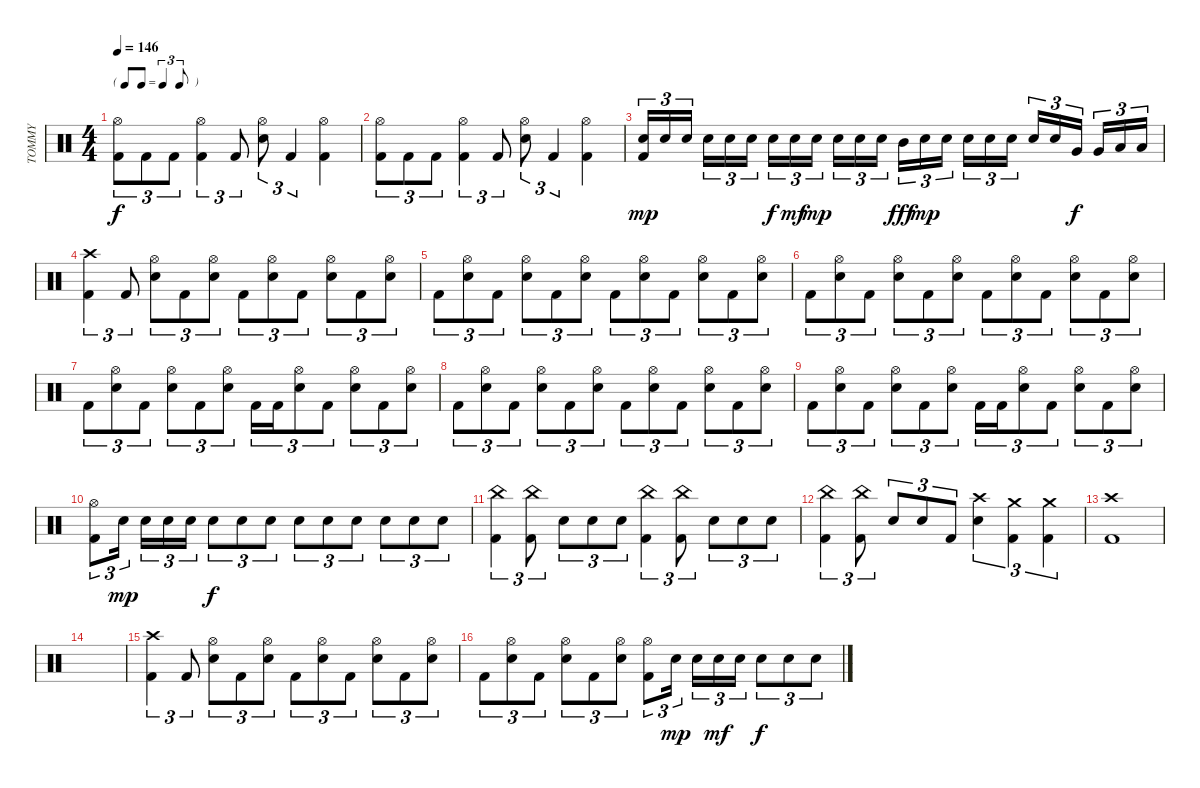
\track ("TOMMY" "TOMMY") {instrument percussion}
\staff {score}
\articulation defaults
\ts (4 4)
\tf triplet8th
\tempo 146
\clef neutral
\ks c
("Kick (hit) 2" "Hi-Hat (open)").8{tu (3 2) dy f} "Kick (hit) 2".8{tu (3 2)} "Kick (hit) 2".8{tu (3 2)} ("Kick (hit) 2" "Hi-Hat (open)").4{tu (3 2)} "Kick (hit) 2".8{tu (3 2)} ("Snare (hit) 2" "Hi-Hat (open)").8{tu (3 2)} "Kick (hit) 2".4{tu (3 2)} ("Kick (hit) 2" "Hi-Hat (open)").4 |
("Kick (hit) 2" "Hi-Hat (open)").8{tu (3 2)} "Kick (hit) 2".8{tu (3 2)} "Kick (hit) 2".8{tu (3 2)} ("Kick (hit) 2" "Hi-Hat (open)").4{tu (3 2)} "Kick (hit) 2".8{tu (3 2)} ("Snare (hit) 2" "Hi-Hat (open)").8{tu (3 2)} "Kick (hit) 2".4{tu (3 2)} ("Kick (hit) 2" "Hi-Hat (open)").4 |
("Snare (hit) 2" "Kick (hit) 2").16{tu (3 2) dy mp} "Snare (hit) 2".16{tu (3 2)} "Snare (hit) 2".16{tu (3 2)} "Snare (hit) 2".16{tu (3 2)} "Snare (hit) 2".16{tu (3 2)} "Snare (hit) 2".16{tu (3 2)} "Snare (hit) 2".16{tu (3 2) dy f} "Snare (hit) 2".16{tu (3 2) dy mf} "Snare (hit) 2".16{tu (3 2) dy mp} "Snare (hit) 2".16{tu (3 2)} "Snare (hit) 2".16{tu (3 2)} "Snare (hit) 2".16{tu (3 2)} "Mid Tom (hit)".16{tu (3 2) dy fff} "Snare (hit) 2".16{tu (3 2) dy mp} "Snare (hit) 2".16{tu (3 2)} "Snare (hit) 2".16{tu (3 2)} "Snare (hit) 2".16{tu (3 2)} "Snare (hit) 2".16{tu (3 2)} "Snare (hit) 2".16{tu (3 2)} "Snare (hit) 2".16{tu (3 2)} "Very Low Tom (hit)".16{tu (3 2) dy f} "Very Low Tom (hit)".16{tu (3 2)} "Low Floor Tom (hit)".16{tu (3 2)} "Low Floor Tom (hit)".16{tu (3 2)} |
("Kick (hit) 2" "Crash high (hit)").4{tu (3 2)} "Kick (hit) 2".8{tu (3 2)} ("Snare (hit) 2" "Hi-Hat (open)").8{tu (3 2)} "Kick (hit) 2".8{tu (3 2)} ("Snare (hit) 2" "Hi-Hat (open)").8{tu (3 2)} "Kick (hit) 2".8{tu (3 2)} ("Snare (hit) 2" "Hi-Hat (open)").8{tu (3 2)} "Kick (hit) 2".8{tu (3 2)} ("Snare (hit) 2" "Hi-Hat (open)").8{tu (3 2)} "Kick (hit) 2".8{tu (3 2)} ("Snare (hit) 2" "Hi-Hat (open)").8{tu (3 2)} |
"Kick (hit) 2".8{tu (3 2)} ("Snare (hit) 2" "Hi-Hat (open)").8{tu (3 2)} "Kick (hit) 2".8{tu (3 2)} ("Snare (hit) 2" "Hi-Hat (open)").8{tu (3 2)} "Kick (hit) 2".8{tu (3 2)} ("Snare (hit) 2" "Hi-Hat (open)").8{tu (3 2)} "Kick (hit) 2".8{tu (3 2)} ("Snare (hit) 2" "Hi-Hat (open)").8{tu (3 2)} "Kick (hit) 2".8{tu (3 2)} ("Snare (hit) 2" "Hi-Hat (open)").8{tu (3 2)} "Kick (hit) 2".8{tu (3 2)} ("Snare (hit) 2" "Hi-Hat (open)").8{tu (3 2)} |
"Kick (hit) 2".8{tu (3 2)} ("Snare (hit) 2" "Hi-Hat (open)").8{tu (3 2)} "Kick (hit) 2".8{tu (3 2)} ("Snare (hit) 2" "Hi-Hat (open)").8{tu (3 2)} "Kick (hit) 2".8{tu (3 2)} ("Snare (hit) 2" "Hi-Hat (open)").8{tu (3 2)} "Kick (hit) 2".8{tu (3 2)} ("Snare (hit) 2" "Hi-Hat (open)").8{tu (3 2)} "Kick (hit) 2".8{tu (3 2)} ("Snare (hit) 2" "Hi-Hat (open)").8{tu (3 2)} "Kick (hit) 2".8{tu (3 2)} ("Snare (hit) 2" "Hi-Hat (open)").8{tu (3 2)} |
"Kick (hit) 2".8{tu (3 2)} ("Snare (hit) 2" "Hi-Hat (open)").8{tu (3 2)} "Kick (hit) 2".8{tu (3 2)} ("Snare (hit) 2" "Hi-Hat (open)").8{tu (3 2)} "Kick (hit) 2".8{tu (3 2)} ("Snare (hit) 2" "Hi-Hat (open)").8{tu (3 2)} "Kick (hit) 2".16{tu (3 2)} "Kick (hit) 2".16{tu (3 2)} ("Snare (hit) 2" "Hi-Hat (open)").8{tu (3 2)} "Kick (hit) 2".8{tu (3 2)} ("Snare (hit) 2" "Hi-Hat (open)").8{tu (3 2)} "Kick (hit) 2".8{tu (3 2)} ("Snare (hit) 2" "Hi-Hat (open)").8{tu (3 2)} |
"Kick (hit) 2".8{tu (3 2)} ("Snare (hit) 2" "Hi-Hat (open)").8{tu (3 2)} "Kick (hit) 2".8{tu (3 2)} ("Snare (hit) 2" "Hi-Hat (open)").8{tu (3 2)} "Kick (hit) 2".8{tu (3 2)} ("Snare (hit) 2" "Hi-Hat (open)").8{tu (3 2)} "Kick (hit) 2".8{tu (3 2)} ("Snare (hit) 2" "Hi-Hat (open)").8{tu (3 2)} "Kick (hit) 2".8{tu (3 2)} ("Snare (hit) 2" "Hi-Hat (open)").8{tu (3 2)} "Kick (hit) 2".8{tu (3 2)} ("Snare (hit) 2" "Hi-Hat (open)").8{tu (3 2)} |
"Kick (hit) 2".8{tu (3 2)} ("Snare (hit) 2" "Hi-Hat (open)").8{tu (3 2)} "Kick (hit) 2".8{tu (3 2)} ("Snare (hit) 2" "Hi-Hat (open)").8{tu (3 2)} "Kick (hit) 2".8{tu (3 2)} ("Snare (hit) 2" "Hi-Hat (open)").8{tu (3 2)} "Kick (hit) 2".16{tu (3 2)} "Kick (hit) 2".16{tu (3 2)} ("Snare (hit) 2" "Hi-Hat (open)").8{tu (3 2)} "Kick (hit) 2".8{tu (3 2)} ("Snare (hit) 2" "Hi-Hat (open)").8{tu (3 2)} "Kick (hit) 2".8{tu (3 2)} ("Snare (hit) 2" "Hi-Hat (open)").8{tu (3 2)} |
("Kick (hit) 2" "Hi-Hat (open)").8{tu (3 2)} "Snare (hit) 2".16{tu (3 2) dy mp} "Snare (hit) 2".16{tu (3 2)} "Snare (hit) 2".16{tu (3 2)} "Snare (hit) 2".16{tu (3 2)} "Snare (hit) 2".8{tu (3 2) dy f} "Snare (hit) 2".8{tu (3 2)} "Snare (hit) 2".8{tu (3 2)} "Snare (hit) 2".8{tu (3 2)} "Snare (hit) 2".8{tu (3 2)} "Snare (hit) 2".8{tu (3 2)} "Snare (hit) 2".8{tu (3 2)} "Snare (hit) 2".8{tu (3 2)} "Snare (hit) 2".8{tu (3 2)} |
("Kick (hit) 2" "China (hit)").4{tu (3 2)} ("Kick (hit) 2" "China (hit)").8{tu (3 2)} "Snare (hit) 2".8{tu (3 2)} "Snare (hit) 2".8{tu (3 2)} "Snare (hit) 2".8{tu (3 2)} ("Kick (hit) 2" "China (hit)").4{tu (3 2)} ("Kick (hit) 2" "China (hit)").8{tu (3 2)} "Snare (hit) 2".8{tu (3 2)} "Snare (hit) 2".8{tu (3 2)} "Snare (hit) 2".8{tu (3 2)} |
("Kick (hit) 2" "China (hit)").4{tu (3 2)} ("Kick (hit) 2" "China (hit)").8{tu (3 2)} "Snare (hit) 2".8{tu (3 2)} "Snare (hit) 2".8{tu (3 2)} "Kick (hit) 2".8{tu (3 2)} ("Snare (hit) 2" "Crash high (hit)").4{tu (3 2)} ("Kick (hit) 2" "Crash medium (hit)").4{tu (3 2)} ("Kick (hit) 2" "Crash medium (hit)").4{tu (3 2)} |
("Kick (hit) 2" "Crash high (hit)").1 |
|
("Kick (hit) 2" "Crash high (hit)").4{tu (3 2)} "Kick (hit) 2".8{tu (3 2)} ("Snare (hit) 2" "Hi-Hat (open)").8{tu (3 2)} "Kick (hit) 2".8{tu (3 2)} ("Snare (hit) 2" "Hi-Hat (open)").8{tu (3 2)} "Kick (hit) 2".8{tu (3 2)} ("Snare (hit) 2" "Hi-Hat (open)").8{tu (3 2)} "Kick (hit) 2".8{tu (3 2)} ("Snare (hit) 2" "Hi-Hat (open)").8{tu (3 2)} "Kick (hit) 2".8{tu (3 2)} ("Snare (hit) 2" "Hi-Hat (open)").8{tu (3 2)} |
"Kick (hit) 2".8{tu (3 2)} ("Snare (hit) 2" "Hi-Hat (open)").8{tu (3 2)} "Kick (hit) 2".8{tu (3 2)} ("Snare (hit) 2" "Hi-Hat (open)").8{tu (3 2)} "Kick (hit) 2".8{tu (3 2)} ("Snare (hit) 2" "Hi-Hat (open)").8{tu (3 2)} ("Kick (hit) 2" "Hi-Hat (open)").8{tu (3 2)} "Snare (hit) 2".16{tu (3 2) dy mp} "Snare (hit) 2".16{tu (3 2)} "Snare (hit) 2".16{tu (3 2) dy mf} "Snare (hit) 2".16{tu (3 2)} "Snare (hit) 2".8{tu (3 2) dy f} "Snare (hit) 2".8{tu (3 2)} "Snare (hit) 2".8{tu (3 2)}
